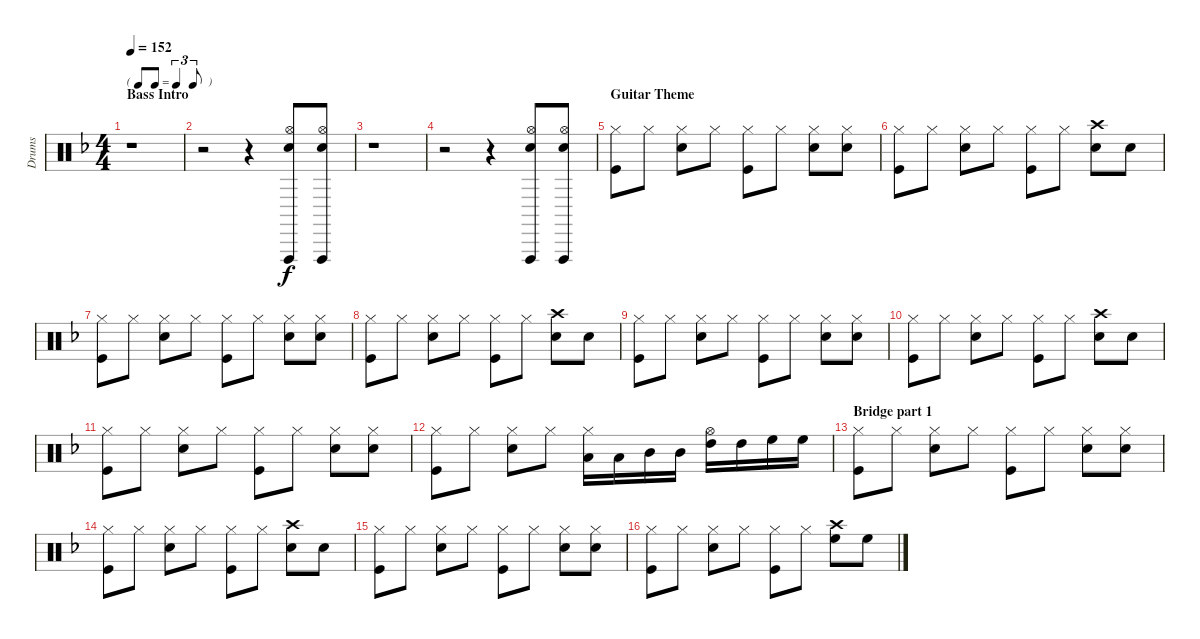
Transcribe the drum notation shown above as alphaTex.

\track ("Drums" "Drums") {instrument percussion}
\staff {score}
\articulation defaults
\ts (4 4)
\tf triplet8th
\section ("" "Bass Intro")
\tempo 152
\clef neutral
\ks f
r.1{dy f} |
r.2 r.4 ("Hi-Hat (open)" "Snare (hit) 2" "Vibraslap (hit)").8 ("Hi-Hat (open)" "Snare (hit) 2" "Vibraslap (hit)").8 |
r.1 |
r.2 r.4 ("Hi-Hat (open)" "Snare (hit) 2" "Vibraslap (hit)").8 ("Hi-Hat (open)" "Snare (hit) 2" "Vibraslap (hit)").8 |
\section ("" "Guitar Theme")
("Hi-Hat (closed)" "Kick (hit)").8 "Hi-Hat (closed)".8 ("Hi-Hat (closed)" "Snare (hit) 2").8 "Hi-Hat (closed)".8 ("Hi-Hat (closed)" "Kick (hit)").8 "Hi-Hat (closed)".8 ("Hi-Hat (closed)" "Snare (hit) 2").8 ("Hi-Hat (closed)" "Snare (hit) 2").8 |
("Hi-Hat (closed)" "Kick (hit)").8 "Hi-Hat (closed)".8 ("Hi-Hat (closed)" "Snare (hit) 2").8 "Hi-Hat (closed)".8 ("Hi-Hat (closed)" "Kick (hit)").8 "Hi-Hat (closed)".8 ("Crash high (hit)" "Snare (hit) 2").8 "Snare (hit) 2".8 |
("Hi-Hat (closed)" "Kick (hit)").8 "Hi-Hat (closed)".8 ("Hi-Hat (closed)" "Snare (hit) 2").8 "Hi-Hat (closed)".8 ("Hi-Hat (closed)" "Kick (hit)").8 "Hi-Hat (closed)".8 ("Hi-Hat (closed)" "Snare (hit) 2").8 ("Hi-Hat (closed)" "Snare (hit) 2").8 |
("Hi-Hat (closed)" "Kick (hit)").8 "Hi-Hat (closed)".8 ("Hi-Hat (closed)" "Snare (hit) 2").8 "Hi-Hat (closed)".8 ("Hi-Hat (closed)" "Kick (hit)").8 "Hi-Hat (closed)".8 ("Crash high (hit)" "Snare (hit) 2").8 "Snare (hit) 2".8 |
("Hi-Hat (closed)" "Kick (hit)").8 "Hi-Hat (closed)".8 ("Hi-Hat (closed)" "Snare (hit) 2").8 "Hi-Hat (closed)".8 ("Hi-Hat (closed)" "Kick (hit)").8 "Hi-Hat (closed)".8 ("Hi-Hat (closed)" "Snare (hit) 2").8 ("Hi-Hat (closed)" "Snare (hit) 2").8 |
("Hi-Hat (closed)" "Kick (hit)").8 "Hi-Hat (closed)".8 ("Hi-Hat (closed)" "Snare (hit) 2").8 "Hi-Hat (closed)".8 ("Hi-Hat (closed)" "Kick (hit)").8 "Hi-Hat (closed)".8 ("Crash high (hit)" "Snare (hit) 2").8 "Snare (hit) 2".8 |
("Hi-Hat (closed)" "Kick (hit)").8 "Hi-Hat (closed)".8 ("Hi-Hat (closed)" "Snare (hit) 2").8 "Hi-Hat (closed)".8 ("Hi-Hat (closed)" "Kick (hit)").8 "Hi-Hat (closed)".8 ("Hi-Hat (closed)" "Snare (hit) 2").8 ("Hi-Hat (closed)" "Snare (hit) 2").8 |
("Hi-Hat (closed)" "Kick (hit)").8 "Hi-Hat (closed)".8 ("Hi-Hat (closed)" "Snare (hit) 2").8 "Hi-Hat (closed)".8 ("Hi-Hat (closed)" "Low Tom (hit)").16 "Low Tom (hit)".16 "Mid Tom (hit)".16 "Mid Tom (hit)".16 ("Hi-Hat (open)" "High Tom (hit)").16 "High Tom (hit)".16 "High Floor Tom (hit)".16 "High Floor Tom (hit)".16 |
\section ("" "Bridge part 1")
("Hi-Hat (closed)" "Kick (hit)").8 "Hi-Hat (closed)".8 ("Hi-Hat (closed)" "Snare (hit) 2").8 "Hi-Hat (closed)".8 ("Hi-Hat (closed)" "Kick (hit)").8 "Hi-Hat (closed)".8 ("Hi-Hat (closed)" "Snare (hit) 2").8 ("Hi-Hat (closed)" "Snare (hit) 2").8 |
("Hi-Hat (closed)" "Kick (hit)").8 "Hi-Hat (closed)".8 ("Hi-Hat (closed)" "Snare (hit) 2").8 "Hi-Hat (closed)".8 ("Hi-Hat (closed)" "Kick (hit)").8 "Hi-Hat (closed)".8 ("Crash high (hit)" "Snare (hit) 2").8 "Snare (hit) 2".8 |
("Hi-Hat (closed)" "Kick (hit)").8 "Hi-Hat (closed)".8 ("Hi-Hat (closed)" "Snare (hit) 2").8 "Hi-Hat (closed)".8 ("Hi-Hat (closed)" "Kick (hit)").8 "Hi-Hat (closed)".8 ("Hi-Hat (closed)" "Snare (hit) 2").8 ("Hi-Hat (closed)" "Snare (hit) 2").8 |
("Hi-Hat (closed)" "Kick (hit)").8 "Hi-Hat (closed)".8 ("Hi-Hat (closed)" "Snare (hit) 2").8 "Hi-Hat (closed)".8 ("Hi-Hat (closed)" "Kick (hit)").8 "Hi-Hat (closed)".8 ("Crash high (hit)" "High Floor Tom (hit)").8 "High Floor Tom (hit)".8
